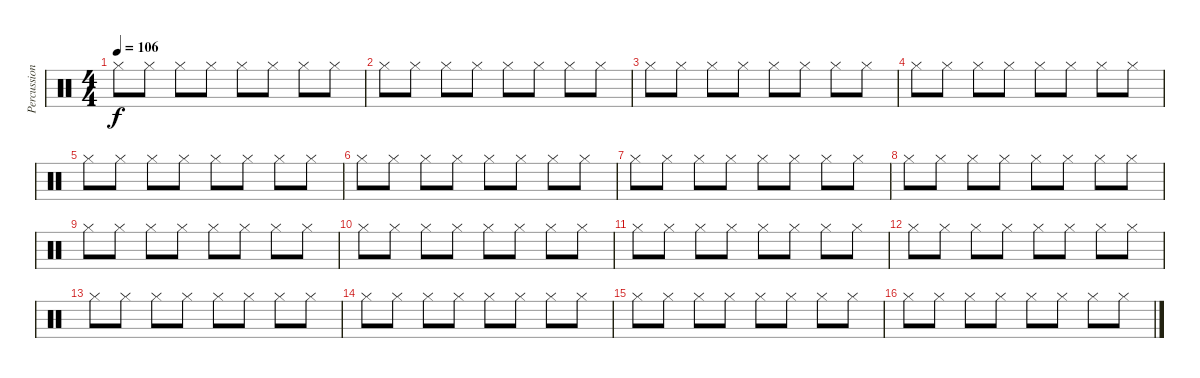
\track ("Percussions" "Percussion") {instrument percussion}
\staff {score}
\articulation defaults
\ts (4 4)
\tempo 106
\clef neutral
\ks c "Hi-Hat (closed)".8{dy f} "Hi-Hat (closed)".8 "Hi-Hat (closed)".8 "Hi-Hat (closed)".8 "Hi-Hat (closed)".8 "Hi-Hat (closed)".8 "Hi-Hat (closed)".8 "Hi-Hat (closed)".8
|
"Hi-Hat (closed)".8 "Hi-Hat (closed)".8 "Hi-Hat (closed)".8 "Hi-Hat (closed)".8 "Hi-Hat (closed)".8 "Hi-Hat (closed)".8 "Hi-Hat (closed)".8 "Hi-Hat (closed)".8 |
"Hi-Hat (closed)".8 "Hi-Hat (closed)".8 "Hi-Hat (closed)".8 "Hi-Hat (closed)".8 "Hi-Hat (closed)".8 "Hi-Hat (closed)".8 "Hi-Hat (closed)".8 "Hi-Hat (closed)".8 |
"Hi-Hat (closed)".8 "Hi-Hat (closed)".8 "Hi-Hat (closed)".8 "Hi-Hat (closed)".8 "Hi-Hat (closed)".8 "Hi-Hat (closed)".8 "Hi-Hat (closed)".8 "Hi-Hat (closed)".8 |
"Hi-Hat (closed)".8 "Hi-Hat (closed)".8 "Hi-Hat (closed)".8 "Hi-Hat (closed)".8 "Hi-Hat (closed)".8 "Hi-Hat (closed)".8 "Hi-Hat (closed)".8 "Hi-Hat (closed)".8 |
"Hi-Hat (closed)".8 "Hi-Hat (closed)".8 "Hi-Hat (closed)".8 "Hi-Hat (closed)".8 "Hi-Hat (closed)".8 "Hi-Hat (closed)".8 "Hi-Hat (closed)".8 "Hi-Hat (closed)".8 |
"Hi-Hat (closed)".8 "Hi-Hat (closed)".8 "Hi-Hat (closed)".8 "Hi-Hat (closed)".8 "Hi-Hat (closed)".8 "Hi-Hat (closed)".8 "Hi-Hat (closed)".8 "Hi-Hat (closed)".8 |
"Hi-Hat (closed)".8 "Hi-Hat (closed)".8 "Hi-Hat (closed)".8 "Hi-Hat (closed)".8 "Hi-Hat (closed)".8 "Hi-Hat (closed)".8 "Hi-Hat (closed)".8 "Hi-Hat (closed)".8 |
"Hi-Hat (closed)".8 "Hi-Hat (closed)".8 "Hi-Hat (closed)".8 "Hi-Hat (closed)".8 "Hi-Hat (closed)".8 "Hi-Hat (closed)".8 "Hi-Hat (closed)".8 "Hi-Hat (closed)".8 |
"Hi-Hat (closed)".8 "Hi-Hat (closed)".8 "Hi-Hat (closed)".8 "Hi-Hat (closed)".8 "Hi-Hat (closed)".8 "Hi-Hat (closed)".8 "Hi-Hat (closed)".8 "Hi-Hat (closed)".8 |
"Hi-Hat (closed)".8 "Hi-Hat (closed)".8 "Hi-Hat (closed)".8 "Hi-Hat (closed)".8 "Hi-Hat (closed)".8 "Hi-Hat (closed)".8 "Hi-Hat (closed)".8 "Hi-Hat (closed)".8 |
"Hi-Hat (closed)".8 "Hi-Hat (closed)".8 "Hi-Hat (closed)".8 "Hi-Hat (closed)".8 "Hi-Hat (closed)".8 "Hi-Hat (closed)".8 "Hi-Hat (closed)".8 "Hi-Hat (closed)".8 |
"Hi-Hat (closed)".8 "Hi-Hat (closed)".8 "Hi-Hat (closed)".8 "Hi-Hat (closed)".8 "Hi-Hat (closed)".8 "Hi-Hat (closed)".8 "Hi-Hat (closed)".8 "Hi-Hat (closed)".8 |
"Hi-Hat (closed)".8 "Hi-Hat (closed)".8 "Hi-Hat (closed)".8 "Hi-Hat (closed)".8 "Hi-Hat (closed)".8 "Hi-Hat (closed)".8 "Hi-Hat (closed)".8 "Hi-Hat (closed)".8 |
"Hi-Hat (closed)".8 "Hi-Hat (closed)".8 "Hi-Hat (closed)".8 "Hi-Hat (closed)".8 "Hi-Hat (closed)".8 "Hi-Hat (closed)".8 "Hi-Hat (closed)".8 "Hi-Hat (closed)".8 |
"Hi-Hat (closed)".8 "Hi-Hat (closed)".8 "Hi-Hat (closed)".8 "Hi-Hat (closed)".8 "Hi-Hat (closed)".8 "Hi-Hat (closed)".8 "Hi-Hat (closed)".8 "Hi-Hat (closed)".8
